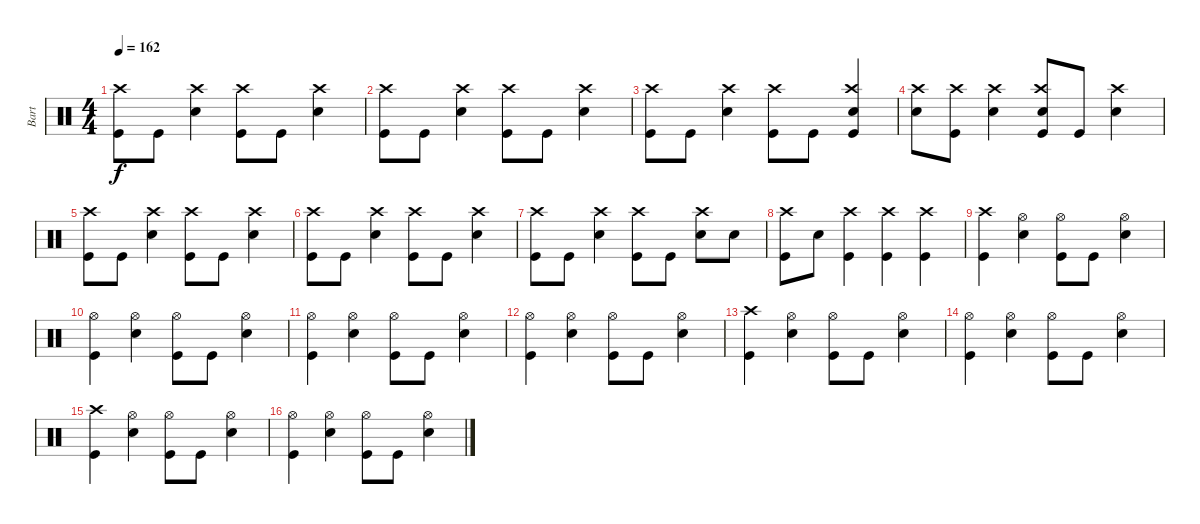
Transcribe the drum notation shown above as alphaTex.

\track ("Bart" "Bart") {instrument percussion}
\staff {score}
\articulation defaults
\ts (4 4)
\tempo 162
\clef neutral
\ks c
("Kick (hit)" "Crash high (hit)").8{dy f} "Kick (hit)".8 ("Electric Snare (hit)" "Crash high (hit)").4 ("Kick (hit)" "Crash high (hit)").8 "Kick (hit)".8 ("Electric Snare (hit)" "Crash high (hit)").4 |
("Kick (hit)" "Crash high (hit)").8 "Kick (hit)".8 ("Electric Snare (hit)" "Crash high (hit)").4 ("Kick (hit)" "Crash high (hit)").8 "Kick (hit)".8 ("Electric Snare (hit)" "Crash high (hit)").4 |
("Kick (hit)" "Crash high (hit)").8 "Kick (hit)".8 ("Electric Snare (hit)" "Crash high (hit)").4 ("Kick (hit)" "Crash high (hit)").8 "Kick (hit)".8 ("Kick (hit)" "Electric Snare (hit)" "Crash high (hit)").4 |
("Electric Snare (hit)" "Crash high (hit)").8 ("Kick (hit)" "Crash high (hit)").8 ("Electric Snare (hit)" "Crash high (hit)").4 ("Kick (hit)" "Electric Snare (hit)" "Crash high (hit)").8 "Kick (hit)".8 ("Electric Snare (hit)" "Crash high (hit)").4 |
("Kick (hit)" "Crash high (hit)").8 "Kick (hit)".8 ("Electric Snare (hit)" "Crash high (hit)").4 ("Kick (hit)" "Crash high (hit)").8 "Kick (hit)".8 ("Electric Snare (hit)" "Crash high (hit)").4 |
("Kick (hit)" "Crash high (hit)").8 "Kick (hit)".8 ("Electric Snare (hit)" "Crash high (hit)").4 ("Kick (hit)" "Crash high (hit)").8 "Kick (hit)".8 ("Electric Snare (hit)" "Crash high (hit)").4 |
("Kick (hit)" "Crash high (hit)").8 "Kick (hit)".8 ("Electric Snare (hit)" "Crash high (hit)").4 ("Kick (hit)" "Crash high (hit)").8 "Kick (hit)".8 ("Electric Snare (hit)" "Crash high (hit)").8 "Electric Snare (hit)".8 |
("Kick (hit)" "Crash high (hit)").8 "Electric Snare (hit)".8 ("Kick (hit)" "Crash high (hit)").4 ("Kick (hit)" "Crash high (hit)").4 ("Kick (hit)" "Crash high (hit)").4 |
("Kick (hit)" "Crash high (hit)").4 ("Electric Snare (hit)" "Hi-Hat (open)").4 ("Kick (hit)" "Hi-Hat (open)").8 "Kick (hit)".8 ("Electric Snare (hit)" "Hi-Hat (open)").4 |
("Kick (hit)" "Hi-Hat (open)").4 ("Electric Snare (hit)" "Hi-Hat (open)").4 ("Kick (hit)" "Hi-Hat (open)").8 "Kick (hit)".8 ("Electric Snare (hit)" "Hi-Hat (open)").4 |
("Kick (hit)" "Hi-Hat (open)").4 ("Electric Snare (hit)" "Hi-Hat (open)").4 ("Kick (hit)" "Hi-Hat (open)").8 "Kick (hit)".8 ("Electric Snare (hit)" "Hi-Hat (open)").4 |
("Kick (hit)" "Hi-Hat (open)").4 ("Electric Snare (hit)" "Hi-Hat (open)").4 ("Kick (hit)" "Hi-Hat (open)").8 "Kick (hit)".8 ("Electric Snare (hit)" "Hi-Hat (open)").4 |
("Kick (hit)" "Crash high (hit)").4 ("Electric Snare (hit)" "Hi-Hat (open)").4 ("Kick (hit)" "Hi-Hat (open)").8 "Kick (hit)".8 ("Electric Snare (hit)" "Hi-Hat (open)").4 |
("Kick (hit)" "Hi-Hat (open)").4 ("Electric Snare (hit)" "Hi-Hat (open)").4 ("Kick (hit)" "Hi-Hat (open)").8 "Kick (hit)".8 ("Electric Snare (hit)" "Hi-Hat (open)").4 |
("Kick (hit)" "Crash high (hit)").4 ("Electric Snare (hit)" "Hi-Hat (open)").4 ("Kick (hit)" "Hi-Hat (open)").8 "Kick (hit)".8 ("Electric Snare (hit)" "Hi-Hat (open)").4 |
("Kick (hit)" "Hi-Hat (open)").4 ("Electric Snare (hit)" "Hi-Hat (open)").4 ("Kick (hit)" "Hi-Hat (open)").8 "Kick (hit)".8 ("Electric Snare (hit)" "Hi-Hat (open)").4
